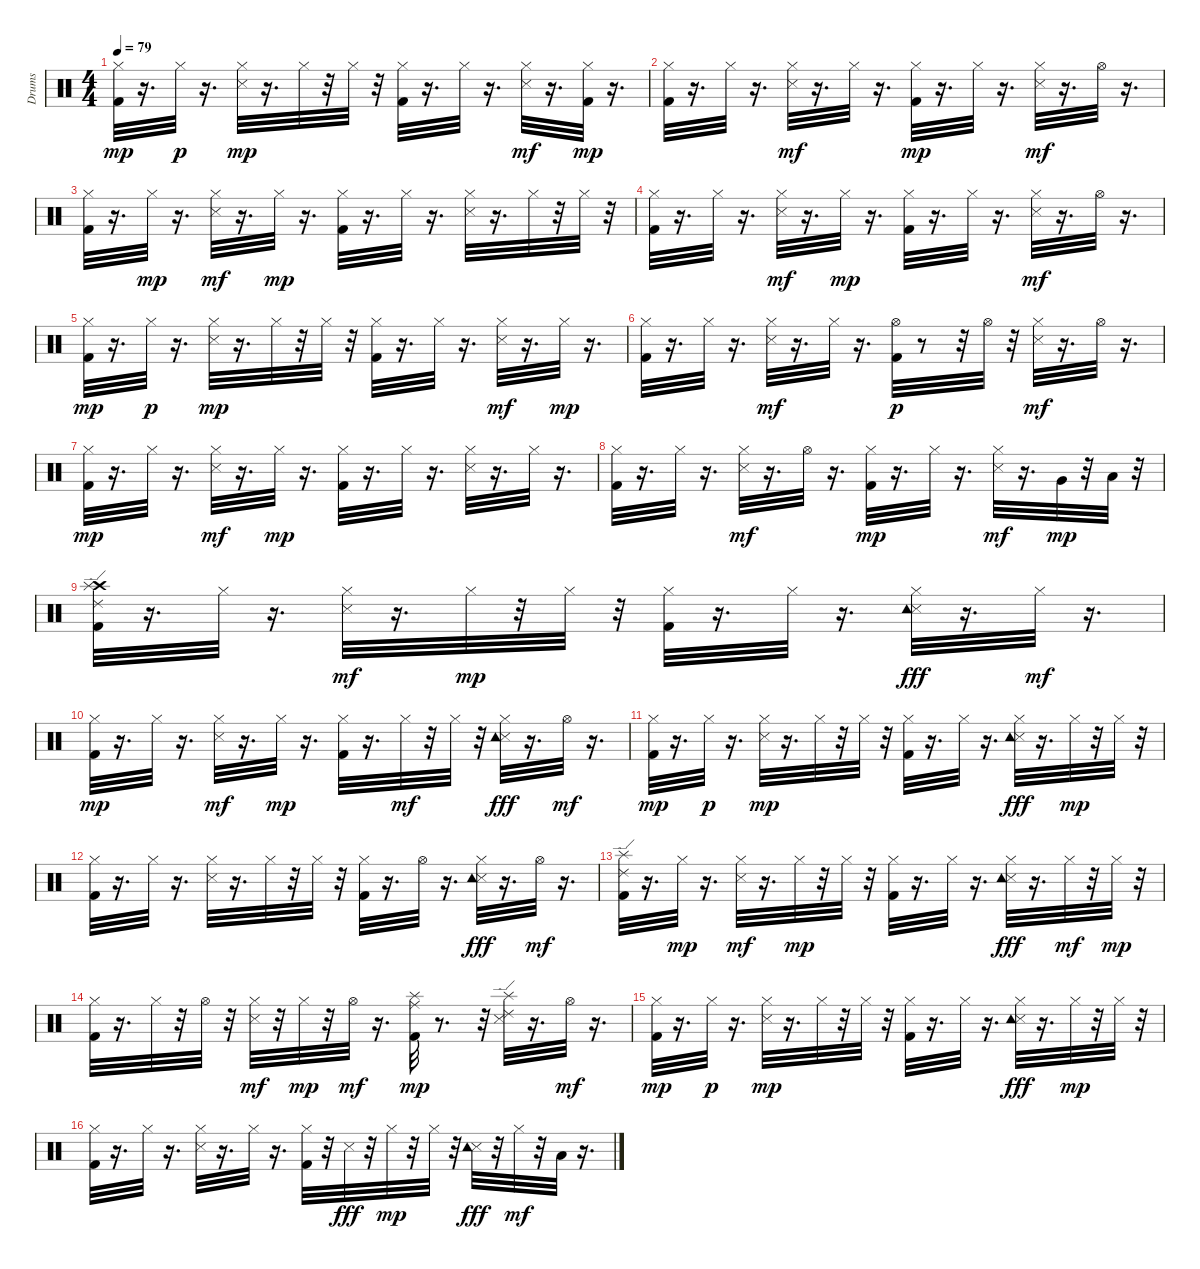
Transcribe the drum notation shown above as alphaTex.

\track ("Drums" "Drums") {instrument percussion}
\staff {score}
\articulation defaults
\ts (4 4)
\tempo 79
\clef neutral
\ks c
("Kick (hit) 2" "Hi-Hat (closed)").32{dy mp} r.16{d} "Hi-Hat (closed)".32{dy p} r.16{d} ("Snare (side stick) 3" "Hi-Hat (closed)").32{dy mp} r.16{d} "Hi-Hat (closed)".32 r.32 "Hi-Hat (closed)".32 r.32 ("Kick (hit) 2" "Hi-Hat (closed)").32 r.16{d} "Hi-Hat (closed)".32 r.16{d} ("Snare (side stick) 3" "Hi-Hat (closed)").32{dy mf} r.16{d} ("Kick (hit) 2" "Hi-Hat (closed)").32{dy mp} r.16{d} |
("Kick (hit) 2" "Hi-Hat (closed)").32 r.16{d} "Hi-Hat (closed)".32 r.16{d} ("Snare (side stick) 3" "Hi-Hat (closed)").32{dy mf} r.16{d} "Hi-Hat (closed)".32 r.16{d} ("Kick (hit) 2" "Hi-Hat (closed)").32{dy mp} r.16{d} "Hi-Hat (closed)".32 r.16{d} ("Snare (side stick) 3" "Hi-Hat (closed)").32{dy mf} r.16{d} "Hi-Hat (open)".32 r.16{d} |
("Kick (hit) 2" "Hi-Hat (closed)").32 r.16{d} "Hi-Hat (closed)".32{dy mp} r.16{d} ("Snare (side stick) 3" "Hi-Hat (closed)").32{dy mf} r.16{d} "Hi-Hat (closed)".32{dy mp} r.16{d} ("Kick (hit) 2" "Hi-Hat (closed)").32 r.16{d} "Hi-Hat (closed)".32 r.16{d} ("Snare (side stick) 3" "Hi-Hat (closed)").32 r.16{d} "Hi-Hat (closed)".32 r.32 "Hi-Hat (closed)".32 r.32 |
("Kick (hit) 2" "Hi-Hat (closed)").32 r.16{d} "Hi-Hat (closed)".32 r.16{d} ("Snare (side stick) 3" "Hi-Hat (closed)").32{dy mf} r.16{d} "Hi-Hat (closed)".32{dy mp} r.16{d} ("Kick (hit) 2" "Hi-Hat (closed)").32 r.16{d} "Hi-Hat (closed)".32 r.16{d} ("Snare (side stick) 3" "Hi-Hat (closed)").32{dy mf} r.16{d} "Hi-Hat (open)".32 r.16{d} |
("Kick (hit) 2" "Hi-Hat (closed)").32{dy mp} r.16{d} "Hi-Hat (closed)".32{dy p} r.16{d} ("Snare (side stick) 3" "Hi-Hat (closed)").32{dy mp} r.16{d} "Hi-Hat (closed)".32 r.32 "Hi-Hat (closed)".32 r.32 ("Kick (hit) 2" "Hi-Hat (closed)").32 r.16{d} "Hi-Hat (closed)".32 r.16{d} ("Snare (side stick) 3" "Hi-Hat (closed)").32{dy mf} r.16{d} "Hi-Hat (closed)".32{dy mp} r.16{d} |
("Kick (hit) 2" "Hi-Hat (closed)").32 r.16{d} "Hi-Hat (closed)".32 r.16{d} ("Snare (side stick) 3" "Hi-Hat (closed)").32{dy mf} r.16{d} "Hi-Hat (closed)".32 r.16{d} ("Kick (hit) 2" "Hi-Hat (open)").32{dy p} r.8 r.32 "Hi-Hat (open)".32 r.32 ("Snare (side stick) 3" "Hi-Hat (closed)").32{dy mf} r.16{d} "Hi-Hat (open)".32 r.16{d} |
("Kick (hit) 2" "Hi-Hat (closed)").32{dy mp} r.16{d} "Hi-Hat (closed)".32 r.16{d} ("Snare (side stick) 3" "Hi-Hat (closed)").32{dy mf} r.16{d} "Hi-Hat (closed)".32{dy mp} r.16{d} ("Kick (hit) 2" "Hi-Hat (closed)").32 r.16{d} "Hi-Hat (closed)".32 r.16{d} ("Snare (side stick) 3" "Hi-Hat (closed)").32 r.16{d} "Hi-Hat (closed)".32 r.16{d} |
("Kick (hit) 2" "Hi-Hat (closed)").32 r.16{d} "Hi-Hat (closed)".32 r.16{d} ("Snare (side stick) 3" "Hi-Hat (closed)").32{dy mf} r.16{d} "Hi-Hat (open)".32 r.16{d} ("Kick (hit) 2" "Hi-Hat (closed)").32{dy mp} r.16{d} "Hi-Hat (closed)".32 r.16{d} ("Snare (side stick) 3" "Hi-Hat (closed)").32{dy mf} r.16{d} "Very Low Tom (hit)".32{dy mp} r.32 "Low Floor Tom (hit)".32 r.32 |
("Kick (hit) 2" "Crash high (hit)" "Splash (hit)" "Ride (edge) 2").32 r.16{d} "Hi-Hat (closed)".32 r.16{d} ("Snare (side stick) 3" "Hi-Hat (closed)").32{dy mf} r.16{d} "Hi-Hat (closed)".32{dy mp} r.32 "Hi-Hat (closed)".32 r.32 ("Kick (hit) 2" "Hi-Hat (closed)").32 r.16{d} "Hi-Hat (closed)".32 r.16{d} ("Snare (side stick) 3" "Hi-Hat (closed)" "Tambourine (hit)").32{dy fff} r.16{d} "Hi-Hat (closed)".32{dy mf} r.16{d} |
("Kick (hit) 2" "Hi-Hat (closed)").32{dy mp} r.16{d} "Hi-Hat (closed)".32 r.16{d} ("Snare (side stick) 3" "Hi-Hat (closed)").32{dy mf} r.16{d} "Hi-Hat (closed)".32{dy mp} r.16{d} ("Kick (hit) 2" "Hi-Hat (closed)").32 r.16{d} "Hi-Hat (closed)".32{dy mf} r.32 "Hi-Hat (closed)".32 r.32 ("Snare (side stick) 3" "Hi-Hat (closed)" "Tambourine (hit)").32{dy fff} r.16{d} "Hi-Hat (open)".32{dy mf} r.16{d} |
("Kick (hit) 2" "Hi-Hat (closed)").32{dy mp} r.16{d} "Hi-Hat (closed)".32{dy p} r.16{d} ("Snare (side stick) 3" "Hi-Hat (closed)").32{dy mp} r.16{d} "Hi-Hat (closed)".32 r.32 "Hi-Hat (closed)".32 r.32 ("Kick (hit) 2" "Hi-Hat (closed)").32 r.16{d} "Hi-Hat (closed)".32 r.16{d} ("Snare (side stick) 3" "Hi-Hat (closed)" "Tambourine (hit)").32{dy fff} r.16{d} "Hi-Hat (closed)".32{dy mp} r.32 "Hi-Hat (closed)".32 r.32 |
("Kick (hit) 2" "Hi-Hat (closed)").32 r.16{d} "Hi-Hat (closed)".32 r.16{d} ("Snare (side stick) 3" "Hi-Hat (closed)").32 r.16{d} "Hi-Hat (closed)".32 r.32 "Hi-Hat (closed)".32 r.32 ("Kick (hit) 2" "Hi-Hat (closed)").32 r.16{d} "Hi-Hat (open)".32 r.16{d} ("Snare (side stick) 3" "Hi-Hat (closed)" "Tambourine (hit)").32{dy fff} r.16{d} "Hi-Hat (open)".32{dy mf} r.16{d} |
("Kick (hit) 2" "Splash (hit)" "Ride (edge) 2").32 r.16{d} "Hi-Hat (closed)".32{dy mp} r.16{d} ("Snare (side stick) 3" "Hi-Hat (closed)").32{dy mf} r.16{d} "Hi-Hat (closed)".32{dy mp} r.32 "Hi-Hat (closed)".32 r.32 ("Kick (hit) 2" "Hi-Hat (closed)").32 r.16{d} "Hi-Hat (closed)".32 r.16{d} ("Snare (side stick) 3" "Hi-Hat (closed)" "Tambourine (hit)").32{dy fff} r.16{d} "Hi-Hat (closed)".32{dy mf} r.32 "Hi-Hat (closed)".32{dy mp} r.32 |
("Kick (hit) 2" "Hi-Hat (closed)").32 r.16{d} "Hi-Hat (closed)".32 r.32 "Hi-Hat (open)".32 r.32 ("Snare (side stick) 3" "Hi-Hat (closed)").32{dy mf} r.32 "Hi-Hat (closed)".32{dy mp} r.32 "Hi-Hat (open)".32{dy mf} r.16{d} ("Kick (hit) 2" "Ride (middle)" "Splash (hit)").32{dy mp} r.8{d} r.32 ("Snare (side stick) 3" "Splash (hit)" "Ride (edge) 2").32 r.16{d} "Hi-Hat (open)".32{dy mf} r.16{d} |
("Kick (hit) 2" "Hi-Hat (closed)").32{dy mp} r.16{d} "Hi-Hat (closed)".32{dy p} r.16{d} ("Snare (side stick) 3" "Hi-Hat (closed)").32{dy mp} r.16{d} "Hi-Hat (closed)".32 r.32 "Hi-Hat (closed)".32 r.32 ("Kick (hit) 2" "Hi-Hat (closed)").32 r.16{d} "Hi-Hat (closed)".32 r.16{d} ("Snare (side stick) 3" "Hi-Hat (closed)" "Tambourine (hit)").32{dy fff} r.16{d} "Hi-Hat (closed)".32{dy mp} r.32 "Hi-Hat (closed)".32 r.32 |
("Kick (hit) 2" "Hi-Hat (closed)").32 r.16{d} "Hi-Hat (closed)".32 r.16{d} ("Snare (side stick) 3" "Hi-Hat (closed)").32 r.16{d} "Hi-Hat (closed)".32 r.16{d} ("Kick (hit) 2" "Hi-Hat (closed)").32 r.32 "Snare (side stick) 3".32{dy fff} r.32 "Hi-Hat (closed)".32{dy mp} r.32 "Hi-Hat (closed)".32 r.32 ("Snare (side stick) 3" "Tambourine (hit)").32{dy fff} r.32 "Hi-Hat (closed)".32{dy mf} r.32 "Low Floor Tom (hit)".32 r.16{d}
